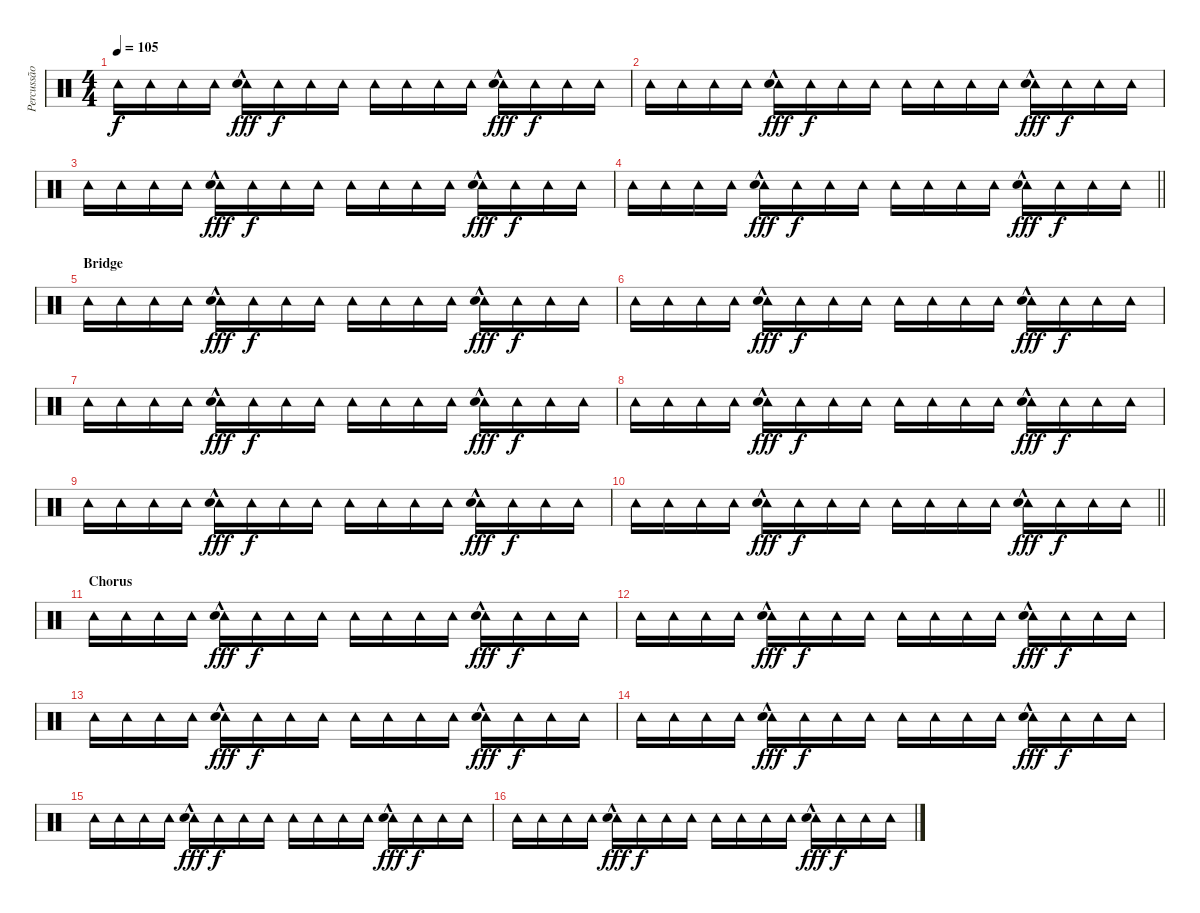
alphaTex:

\track ("Percussão" "Percussão") {instrument percussion}
\staff {score}
\articulation defaults
\ts (4 4)
\tempo 105
\clef neutral
\ks c "Tambourine (hit)".16{dy f} "Tambourine (hit)".16 "Tambourine (hit)".16 "Tambourine (hit)".16
("Tambourine (hit)" "Hand Clap (hit)"{hac}).16{dy fff} "Tambourine (hit)".16{dy f} "Tambourine (hit)".16 "Tambourine (hit)".16 "Tambourine (hit)".16 "Tambourine (hit)".16 "Tambourine (hit)".16 "Tambourine (hit)".16 ("Tambourine (hit)" "Hand Clap (hit)"{hac}).16{dy fff} "Tambourine (hit)".16{dy f} "Tambourine (hit)".16 "Tambourine (hit)".16 |
"Tambourine (hit)".16 "Tambourine (hit)".16 "Tambourine (hit)".16 "Tambourine (hit)".16 ("Tambourine (hit)" "Hand Clap (hit)"{hac}).16{dy fff} "Tambourine (hit)".16{dy f} "Tambourine (hit)".16 "Tambourine (hit)".16 "Tambourine (hit)".16 "Tambourine (hit)".16 "Tambourine (hit)".16 "Tambourine (hit)".16 ("Tambourine (hit)" "Hand Clap (hit)"{hac}).16{dy fff} "Tambourine (hit)".16{dy f} "Tambourine (hit)".16 "Tambourine (hit)".16 |
"Tambourine (hit)".16 "Tambourine (hit)".16 "Tambourine (hit)".16 "Tambourine (hit)".16 ("Tambourine (hit)" "Hand Clap (hit)"{hac}).16{dy fff} "Tambourine (hit)".16{dy f} "Tambourine (hit)".16 "Tambourine (hit)".16 "Tambourine (hit)".16 "Tambourine (hit)".16 "Tambourine (hit)".16 "Tambourine (hit)".16 ("Tambourine (hit)" "Hand Clap (hit)"{hac}).16{dy fff} "Tambourine (hit)".16{dy f} "Tambourine (hit)".16 "Tambourine (hit)".16 |
\barLineRight lightlight "Tambourine (hit)".16 "Tambourine (hit)".16 "Tambourine (hit)".16 "Tambourine (hit)".16
("Tambourine (hit)" "Hand Clap (hit)"{hac}).16{dy fff} "Tambourine (hit)".16{dy f} "Tambourine (hit)".16 "Tambourine (hit)".16 "Tambourine (hit)".16 "Tambourine (hit)".16 "Tambourine (hit)".16 "Tambourine (hit)".16 ("Tambourine (hit)" "Hand Clap (hit)"{hac}).16{dy fff} "Tambourine (hit)".16{dy f} "Tambourine (hit)".16 "Tambourine (hit)".16 |
\section ("" "Bridge")
"Tambourine (hit)".16 "Tambourine (hit)".16 "Tambourine (hit)".16 "Tambourine (hit)".16 ("Tambourine (hit)" "Hand Clap (hit)"{hac}).16{dy fff} "Tambourine (hit)".16{dy f} "Tambourine (hit)".16 "Tambourine (hit)".16 "Tambourine (hit)".16 "Tambourine (hit)".16 "Tambourine (hit)".16 "Tambourine (hit)".16 ("Tambourine (hit)" "Hand Clap (hit)"{hac}).16{dy fff} "Tambourine (hit)".16{dy f} "Tambourine (hit)".16 "Tambourine (hit)".16 |
"Tambourine (hit)".16 "Tambourine (hit)".16 "Tambourine (hit)".16 "Tambourine (hit)".16 ("Tambourine (hit)" "Hand Clap (hit)"{hac}).16{dy fff} "Tambourine (hit)".16{dy f} "Tambourine (hit)".16 "Tambourine (hit)".16 "Tambourine (hit)".16 "Tambourine (hit)".16 "Tambourine (hit)".16 "Tambourine (hit)".16 ("Tambourine (hit)" "Hand Clap (hit)"{hac}).16{dy fff} "Tambourine (hit)".16{dy f} "Tambourine (hit)".16 "Tambourine (hit)".16 |
"Tambourine (hit)".16 "Tambourine (hit)".16 "Tambourine (hit)".16 "Tambourine (hit)".16 ("Tambourine (hit)" "Hand Clap (hit)"{hac}).16{dy fff} "Tambourine (hit)".16{dy f} "Tambourine (hit)".16 "Tambourine (hit)".16 "Tambourine (hit)".16 "Tambourine (hit)".16 "Tambourine (hit)".16 "Tambourine (hit)".16 ("Tambourine (hit)" "Hand Clap (hit)"{hac}).16{dy fff} "Tambourine (hit)".16{dy f} "Tambourine (hit)".16 "Tambourine (hit)".16 |
"Tambourine (hit)".16 "Tambourine (hit)".16 "Tambourine (hit)".16 "Tambourine (hit)".16 ("Tambourine (hit)" "Hand Clap (hit)"{hac}).16{dy fff} "Tambourine (hit)".16{dy f} "Tambourine (hit)".16 "Tambourine (hit)".16 "Tambourine (hit)".16 "Tambourine (hit)".16 "Tambourine (hit)".16 "Tambourine (hit)".16 ("Tambourine (hit)" "Hand Clap (hit)"{hac}).16{dy fff} "Tambourine (hit)".16{dy f} "Tambourine (hit)".16 "Tambourine (hit)".16 |
"Tambourine (hit)".16 "Tambourine (hit)".16 "Tambourine (hit)".16 "Tambourine (hit)".16 ("Tambourine (hit)" "Hand Clap (hit)"{hac}).16{dy fff} "Tambourine (hit)".16{dy f} "Tambourine (hit)".16 "Tambourine (hit)".16 "Tambourine (hit)".16 "Tambourine (hit)".16 "Tambourine (hit)".16 "Tambourine (hit)".16 ("Tambourine (hit)" "Hand Clap (hit)"{hac}).16{dy fff} "Tambourine (hit)".16{dy f} "Tambourine (hit)".16 "Tambourine (hit)".16 |
\barLineRight lightlight "Tambourine (hit)".16 "Tambourine (hit)".16 "Tambourine (hit)".16 "Tambourine (hit)".16
("Tambourine (hit)" "Hand Clap (hit)"{hac}).16{dy fff} "Tambourine (hit)".16{dy f} "Tambourine (hit)".16 "Tambourine (hit)".16 "Tambourine (hit)".16 "Tambourine (hit)".16 "Tambourine (hit)".16 "Tambourine (hit)".16 ("Tambourine (hit)" "Hand Clap (hit)"{hac}).16{dy fff} "Tambourine (hit)".16{dy f} "Tambourine (hit)".16 "Tambourine (hit)".16 |
\section ("" "Chorus")
"Tambourine (hit)".16 "Tambourine (hit)".16 "Tambourine (hit)".16 "Tambourine (hit)".16 ("Tambourine (hit)" "Hand Clap (hit)"{hac}).16{dy fff} "Tambourine (hit)".16{dy f} "Tambourine (hit)".16 "Tambourine (hit)".16 "Tambourine (hit)".16 "Tambourine (hit)".16 "Tambourine (hit)".16 "Tambourine (hit)".16 ("Tambourine (hit)" "Hand Clap (hit)"{hac}).16{dy fff} "Tambourine (hit)".16{dy f} "Tambourine (hit)".16 "Tambourine (hit)".16 |
"Tambourine (hit)".16 "Tambourine (hit)".16 "Tambourine (hit)".16 "Tambourine (hit)".16 ("Tambourine (hit)" "Hand Clap (hit)"{hac}).16{dy fff} "Tambourine (hit)".16{dy f} "Tambourine (hit)".16 "Tambourine (hit)".16 "Tambourine (hit)".16 "Tambourine (hit)".16 "Tambourine (hit)".16 "Tambourine (hit)".16 ("Tambourine (hit)" "Hand Clap (hit)"{hac}).16{dy fff} "Tambourine (hit)".16{dy f} "Tambourine (hit)".16 "Tambourine (hit)".16 |
"Tambourine (hit)".16 "Tambourine (hit)".16 "Tambourine (hit)".16 "Tambourine (hit)".16 ("Tambourine (hit)" "Hand Clap (hit)"{hac}).16{dy fff} "Tambourine (hit)".16{dy f} "Tambourine (hit)".16 "Tambourine (hit)".16 "Tambourine (hit)".16 "Tambourine (hit)".16 "Tambourine (hit)".16 "Tambourine (hit)".16 ("Tambourine (hit)" "Hand Clap (hit)"{hac}).16{dy fff} "Tambourine (hit)".16{dy f} "Tambourine (hit)".16 "Tambourine (hit)".16 |
"Tambourine (hit)".16 "Tambourine (hit)".16 "Tambourine (hit)".16 "Tambourine (hit)".16 ("Tambourine (hit)" "Hand Clap (hit)"{hac}).16{dy fff} "Tambourine (hit)".16{dy f} "Tambourine (hit)".16 "Tambourine (hit)".16 "Tambourine (hit)".16 "Tambourine (hit)".16 "Tambourine (hit)".16 "Tambourine (hit)".16 ("Tambourine (hit)" "Hand Clap (hit)"{hac}).16{dy fff} "Tambourine (hit)".16{dy f} "Tambourine (hit)".16 "Tambourine (hit)".16 |
"Tambourine (hit)".16 "Tambourine (hit)".16 "Tambourine (hit)".16 "Tambourine (hit)".16 ("Tambourine (hit)" "Hand Clap (hit)"{hac}).16{dy fff} "Tambourine (hit)".16{dy f} "Tambourine (hit)".16 "Tambourine (hit)".16 "Tambourine (hit)".16 "Tambourine (hit)".16 "Tambourine (hit)".16 "Tambourine (hit)".16 ("Tambourine (hit)" "Hand Clap (hit)"{hac}).16{dy fff} "Tambourine (hit)".16{dy f} "Tambourine (hit)".16 "Tambourine (hit)".16 |
"Tambourine (hit)".16 "Tambourine (hit)".16 "Tambourine (hit)".16 "Tambourine (hit)".16 ("Tambourine (hit)" "Hand Clap (hit)"{hac}).16{dy fff} "Tambourine (hit)".16{dy f} "Tambourine (hit)".16 "Tambourine (hit)".16 "Tambourine (hit)".16 "Tambourine (hit)".16 "Tambourine (hit)".16 "Tambourine (hit)".16 ("Tambourine (hit)" "Hand Clap (hit)"{hac}).16{dy fff} "Tambourine (hit)".16{dy f} "Tambourine (hit)".16 "Tambourine (hit)".16
